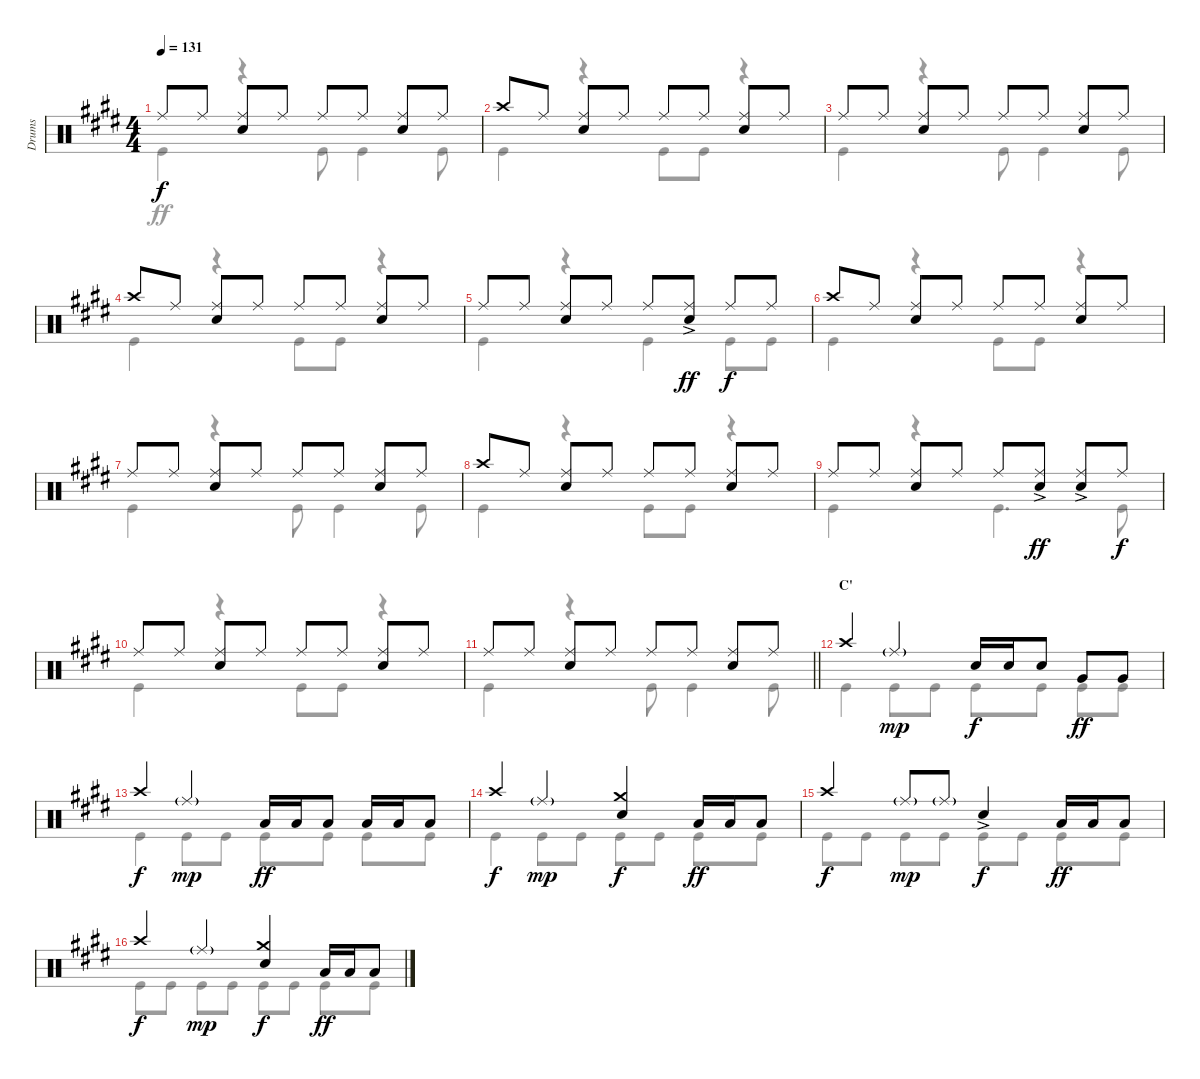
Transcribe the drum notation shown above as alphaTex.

\track ("Drums" "Drums") {instrument percussion}
\staff {score}
\articulation defaults
\voice
\ts (4 4)
\tempo 131
\clef neutral
\ks c#minor "Ride (middle)".8{dy f} "Ride (middle)".8
("Ride (middle)" "Electric Snare (hit)").8 "Ride (middle)".8 "Ride (middle)".8 "Ride (middle)".8 ("Ride (middle)" "Electric Snare (hit)").8 "Ride (middle)".8 |
"Crash high (hit)".8 "Ride (middle)".8 ("Ride (middle)" "Electric Snare (hit)").8 "Ride (middle)".8 "Ride (middle)".8 "Ride (middle)".8 ("Ride (middle)" "Electric Snare (hit)").8 "Ride (middle)".8 |
"Ride (middle)".8 "Ride (middle)".8 ("Ride (middle)" "Electric Snare (hit)").8 "Ride (middle)".8 "Ride (middle)".8 "Ride (middle)".8 ("Ride (middle)" "Electric Snare (hit)").8 "Ride (middle)".8 |
"Crash high (hit)".8 "Ride (middle)".8 ("Ride (middle)" "Electric Snare (hit)").8 "Ride (middle)".8 "Ride (middle)".8 "Ride (middle)".8 ("Ride (middle)" "Electric Snare (hit)").8 "Ride (middle)".8 |
"Ride (middle)".8 "Ride (middle)".8 ("Ride (middle)" "Electric Snare (hit)").8 "Ride (middle)".8 "Ride (middle)".8 ("Ride (middle)" "Electric Snare (hit)"{ac}).8{dy ff} "Ride (middle)".8{dy f} "Ride (middle)".8 |
"Crash high (hit)".8 "Ride (middle)".8 ("Ride (middle)" "Electric Snare (hit)").8 "Ride (middle)".8 "Ride (middle)".8 "Ride (middle)".8 ("Ride (middle)" "Electric Snare (hit)").8 "Ride (middle)".8 |
"Ride (middle)".8 "Ride (middle)".8 ("Ride (middle)" "Electric Snare (hit)").8 "Ride (middle)".8 "Ride (middle)".8 "Ride (middle)".8 ("Ride (middle)" "Electric Snare (hit)").8 "Ride (middle)".8 |
"Crash high (hit)".8 "Ride (middle)".8 ("Ride (middle)" "Electric Snare (hit)").8 "Ride (middle)".8 "Ride (middle)".8 "Ride (middle)".8 ("Ride (middle)" "Electric Snare (hit)").8 "Ride (middle)".8 |
"Ride (middle)".8 "Ride (middle)".8 ("Ride (middle)" "Electric Snare (hit)").8 "Ride (middle)".8 "Ride (middle)".8 ("Ride (middle)" "Electric Snare (hit)"{ac}).8{dy ff} ("Ride (middle)" "Electric Snare (hit)"{ac}).8 "Ride (middle)".8{dy f} |
"Ride (middle)".8 "Ride (middle)".8 ("Ride (middle)" "Electric Snare (hit)").8 "Ride (middle)".8 "Ride (middle)".8 "Ride (middle)".8 ("Ride (middle)" "Electric Snare (hit)").8 "Ride (middle)".8 |
\barLineRight lightlight "Ride (middle)".8 "Ride (middle)".8
("Ride (middle)" "Electric Snare (hit)").8 "Ride (middle)".8 "Ride (middle)".8 "Ride (middle)".8 ("Ride (middle)" "Electric Snare (hit)").8 "Ride (middle)".8 |
\section ("" "C'")
"Crash high (hit)".4 "Ride (middle)"{g}.4{dy mp} "Electric Snare (hit)".16{dy f} "Electric Snare (hit)".16 "Electric Snare (hit)".8 "Very Low Tom (hit)".8{dy ff} "Very Low Tom (hit)".8 |
"Crash high (hit)".4{dy f} "Ride (middle)"{g}.4{dy mp} "Low Tom (hit)".16{dy ff} "Low Tom (hit)".16 "Low Tom (hit)".8 "Low Tom (hit)".16 "Low Tom (hit)".16 "Low Tom (hit)".8 |
"Crash high (hit)".4{dy f} "Ride (middle)"{g}.4{dy mp} ("Crash medium (hit)" "Electric Snare (hit)").4{dy f} "Low Tom (hit)".16{dy ff} "Low Tom (hit)".16 "Low Tom (hit)".8 |
"Crash high (hit)".4{dy f} "Ride (middle)"{g}.8{dy mp} "Ride (middle)"{g}.8 "Electric Snare (hit)"{ac}.4{dy f} "Low Tom (hit)".16{dy ff} "Low Tom (hit)".16 "Low Tom (hit)".8 |
"Crash high (hit)".4{dy f} "Ride (middle)"{g}.4{dy mp} ("Crash medium (hit)" "Electric Snare (hit)").4{dy f} "Low Tom (hit)".16{dy ff} "Low Tom (hit)".16 "Low Tom (hit)".8
\voice
\clef neutral
\ottava regular
\simile none
\ks c#minor "Kick (hit)".4{dy ff}
r.4 "Kick (hit)".8 "Kick (hit)".4 "Kick (hit)".8 |
"Kick (hit)".4 r.4 "Kick (hit)".8 "Kick (hit)".8 r.4 |
"Kick (hit)".4 r.4 "Kick (hit)".8 "Kick (hit)".4 "Kick (hit)".8 |
"Kick (hit)".4 r.4 "Kick (hit)".8 "Kick (hit)".8 r.4 |
"Kick (hit)".4 r.4 "Kick (hit)".4 "Kick (hit)".8 "Kick (hit)".8 |
"Kick (hit)".4 r.4 "Kick (hit)".8 "Kick (hit)".8 r.4 |
"Kick (hit)".4 r.4 "Kick (hit)".8 "Kick (hit)".4 "Kick (hit)".8 |
"Kick (hit)".4 r.4 "Kick (hit)".8 "Kick (hit)".8 r.4 |
"Kick (hit)".4 r.4 "Kick (hit)".4{d} "Kick (hit)".8 |
"Kick (hit)".4 r.4 "Kick (hit)".8 "Kick (hit)".8 r.4 |
\barLineRight lightlight "Kick (hit)".4
r.4 "Kick (hit)".8 "Kick (hit)".4 "Kick (hit)".8 |
"Kick (hit)".4 "Kick (hit)".8 "Kick (hit)".8 "Kick (hit)".8 "Kick (hit)".8 "Kick (hit)".8 "Kick (hit)".8 |
"Kick (hit)".4 "Kick (hit)".8 "Kick (hit)".8 "Kick (hit)".8 "Kick (hit)".8 "Kick (hit)".8 "Kick (hit)".8 |
"Kick (hit)".4 "Kick (hit)".8 "Kick (hit)".8 "Kick (hit)".8 "Kick (hit)".8 "Kick (hit)".8 "Kick (hit)".8 |
"Kick (hit)".8 "Kick (hit)".8 "Kick (hit)".8 "Kick (hit)".8 "Kick (hit)".8 "Kick (hit)".8 "Kick (hit)".8 "Kick (hit)".8 |
"Kick (hit)".8 "Kick (hit)".8 "Kick (hit)".8 "Kick (hit)".8 "Kick (hit)".8 "Kick (hit)".8 "Kick (hit)".8 "Kick (hit)".8
